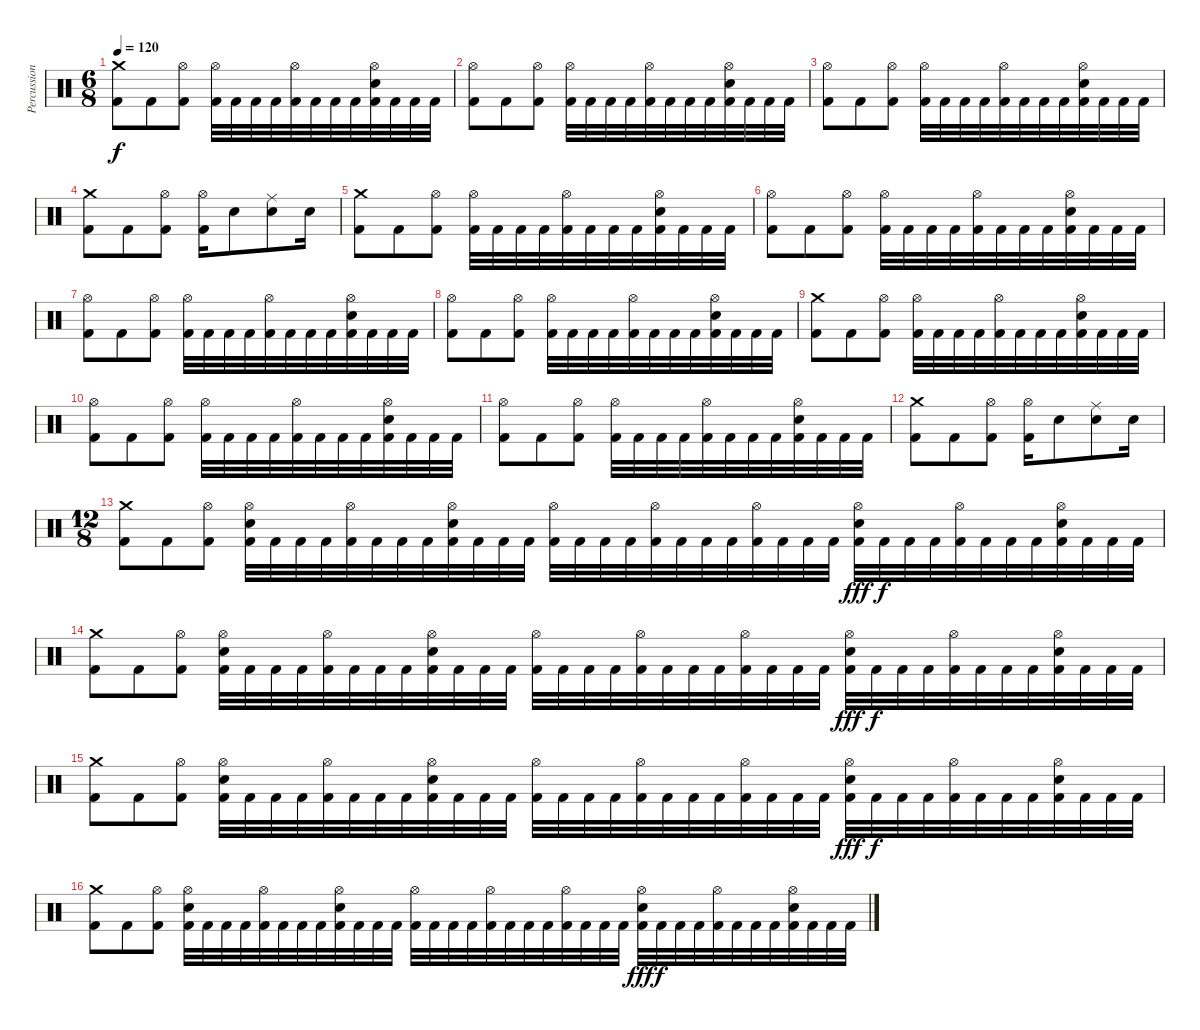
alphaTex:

\track ("Percussion" "Percussion") {instrument percussion}
\staff {score}
\articulation defaults
\ts (6 8)
\tempo 120
\clef neutral
\ks c
("Crash medium (hit)" "Kick (hit) 2").8{dy f} "Kick (hit) 2".8 ("Hi-Hat (open)" "Kick (hit) 2").8 ("Hi-Hat (open)" "Kick (hit) 2").32 "Kick (hit) 2".32 "Kick (hit) 2".32 "Kick (hit) 2".32 ("Hi-Hat (open)" "Kick (hit) 2").32 "Kick (hit) 2".32 "Kick (hit) 2".32 "Kick (hit) 2".32 ("Hi-Hat (open)" "Electric Snare (hit)" "Kick (hit) 2").32 "Kick (hit) 2".32 "Kick (hit) 2".32 "Kick (hit) 2".32 |
("Hi-Hat (open)" "Kick (hit) 2").8 "Kick (hit) 2".8 ("Hi-Hat (open)" "Kick (hit) 2").8 ("Hi-Hat (open)" "Kick (hit) 2").32 "Kick (hit) 2".32 "Kick (hit) 2".32 "Kick (hit) 2".32 ("Hi-Hat (open)" "Kick (hit) 2").32 "Kick (hit) 2".32 "Kick (hit) 2".32 "Kick (hit) 2".32 ("Hi-Hat (open)" "Electric Snare (hit)" "Kick (hit) 2").32 "Kick (hit) 2".32 "Kick (hit) 2".32 "Kick (hit) 2".32 |
("Hi-Hat (open)" "Kick (hit) 2").8 "Kick (hit) 2".8 ("Hi-Hat (open)" "Kick (hit) 2").8 ("Hi-Hat (open)" "Kick (hit) 2").32 "Kick (hit) 2".32 "Kick (hit) 2".32 "Kick (hit) 2".32 ("Hi-Hat (open)" "Kick (hit) 2").32 "Kick (hit) 2".32 "Kick (hit) 2".32 "Kick (hit) 2".32 ("Hi-Hat (open)" "Electric Snare (hit)" "Kick (hit) 2").32 "Kick (hit) 2".32 "Kick (hit) 2".32 "Kick (hit) 2".32 |
("Crash medium (hit)" "Kick (hit) 2").8 "Kick (hit) 2".8 ("Hi-Hat (open)" "Kick (hit) 2").8 ("Hi-Hat (open)" "Kick (hit) 2").16 "Electric Snare (hit)".8 ("Ride (middle)" "Electric Snare (hit)").8 "Electric Snare (hit)".16 |
("Crash medium (hit)" "Kick (hit) 2").8 "Kick (hit) 2".8 ("Hi-Hat (open)" "Kick (hit) 2").8 ("Hi-Hat (open)" "Kick (hit) 2").32 "Kick (hit) 2".32 "Kick (hit) 2".32 "Kick (hit) 2".32 ("Hi-Hat (open)" "Kick (hit) 2").32 "Kick (hit) 2".32 "Kick (hit) 2".32 "Kick (hit) 2".32 ("Hi-Hat (open)" "Electric Snare (hit)" "Kick (hit) 2").32 "Kick (hit) 2".32 "Kick (hit) 2".32 "Kick (hit) 2".32 |
("Hi-Hat (open)" "Kick (hit) 2").8 "Kick (hit) 2".8 ("Hi-Hat (open)" "Kick (hit) 2").8 ("Hi-Hat (open)" "Kick (hit) 2").32 "Kick (hit) 2".32 "Kick (hit) 2".32 "Kick (hit) 2".32 ("Hi-Hat (open)" "Kick (hit) 2").32 "Kick (hit) 2".32 "Kick (hit) 2".32 "Kick (hit) 2".32 ("Hi-Hat (open)" "Electric Snare (hit)" "Kick (hit) 2").32 "Kick (hit) 2".32 "Kick (hit) 2".32 "Kick (hit) 2".32 |
("Hi-Hat (open)" "Kick (hit) 2").8 "Kick (hit) 2".8 ("Hi-Hat (open)" "Kick (hit) 2").8 ("Hi-Hat (open)" "Kick (hit) 2").32 "Kick (hit) 2".32 "Kick (hit) 2".32 "Kick (hit) 2".32 ("Hi-Hat (open)" "Kick (hit) 2").32 "Kick (hit) 2".32 "Kick (hit) 2".32 "Kick (hit) 2".32 ("Hi-Hat (open)" "Electric Snare (hit)" "Kick (hit) 2").32 "Kick (hit) 2".32 "Kick (hit) 2".32 "Kick (hit) 2".32 |
("Hi-Hat (open)" "Kick (hit) 2").8 "Kick (hit) 2".8 ("Hi-Hat (open)" "Kick (hit) 2").8 ("Hi-Hat (open)" "Kick (hit) 2").32 "Kick (hit) 2".32 "Kick (hit) 2".32 "Kick (hit) 2".32 ("Hi-Hat (open)" "Kick (hit) 2").32 "Kick (hit) 2".32 "Kick (hit) 2".32 "Kick (hit) 2".32 ("Hi-Hat (open)" "Electric Snare (hit)" "Kick (hit) 2").32 "Kick (hit) 2".32 "Kick (hit) 2".32 "Kick (hit) 2".32 |
("Crash medium (hit)" "Kick (hit) 2").8 "Kick (hit) 2".8 ("Hi-Hat (open)" "Kick (hit) 2").8 ("Hi-Hat (open)" "Kick (hit) 2").32 "Kick (hit) 2".32 "Kick (hit) 2".32 "Kick (hit) 2".32 ("Hi-Hat (open)" "Kick (hit) 2").32 "Kick (hit) 2".32 "Kick (hit) 2".32 "Kick (hit) 2".32 ("Hi-Hat (open)" "Electric Snare (hit)" "Kick (hit) 2").32 "Kick (hit) 2".32 "Kick (hit) 2".32 "Kick (hit) 2".32 |
("Hi-Hat (open)" "Kick (hit) 2").8 "Kick (hit) 2".8 ("Hi-Hat (open)" "Kick (hit) 2").8 ("Hi-Hat (open)" "Kick (hit) 2").32 "Kick (hit) 2".32 "Kick (hit) 2".32 "Kick (hit) 2".32 ("Hi-Hat (open)" "Kick (hit) 2").32 "Kick (hit) 2".32 "Kick (hit) 2".32 "Kick (hit) 2".32 ("Hi-Hat (open)" "Electric Snare (hit)" "Kick (hit) 2").32 "Kick (hit) 2".32 "Kick (hit) 2".32 "Kick (hit) 2".32 |
("Hi-Hat (open)" "Kick (hit) 2").8 "Kick (hit) 2".8 ("Hi-Hat (open)" "Kick (hit) 2").8 ("Hi-Hat (open)" "Kick (hit) 2").32 "Kick (hit) 2".32 "Kick (hit) 2".32 "Kick (hit) 2".32 ("Hi-Hat (open)" "Kick (hit) 2").32 "Kick (hit) 2".32 "Kick (hit) 2".32 "Kick (hit) 2".32 ("Hi-Hat (open)" "Electric Snare (hit)" "Kick (hit) 2").32 "Kick (hit) 2".32 "Kick (hit) 2".32 "Kick (hit) 2".32 |
("Crash medium (hit)" "Kick (hit) 2").8 "Kick (hit) 2".8 ("Hi-Hat (open)" "Kick (hit) 2").8 ("Hi-Hat (open)" "Kick (hit) 2").16 "Electric Snare (hit)".8 ("Ride (middle)" "Electric Snare (hit)").8 "Electric Snare (hit)".16 |
\ts (12 8)
("Crash medium (hit)" "Kick (hit) 2").8 "Kick (hit) 2".8 ("Hi-Hat (open)" "Kick (hit) 2").8 ("Hi-Hat (open)" "Electric Snare (hit)" "Kick (hit) 2").32 "Kick (hit) 2".32 "Kick (hit) 2".32 "Kick (hit) 2".32 ("Hi-Hat (open)" "Kick (hit) 2").32 "Kick (hit) 2".32 "Kick (hit) 2".32 "Kick (hit) 2".32 ("Hi-Hat (open)" "Electric Snare (hit)" "Kick (hit) 2").32 "Kick (hit) 2".32 "Kick (hit) 2".32 "Kick (hit) 2".32 ("Hi-Hat (open)" "Kick (hit) 2").32 "Kick (hit) 2".32 "Kick (hit) 2".32 "Kick (hit) 2".32 ("Hi-Hat (open)" "Kick (hit) 2").32 "Kick (hit) 2".32 "Kick (hit) 2".32 "Kick (hit) 2".32 ("Hi-Hat (open)" "Kick (hit) 2").32 "Kick (hit) 2".32 "Kick (hit) 2".32 "Kick (hit) 2".32 ("Hi-Hat (open)" "Electric Snare (hit)" "Kick (hit) 2").32{dy fff} "Kick (hit) 2".32{dy f} "Kick (hit) 2".32 "Kick (hit) 2".32 ("Hi-Hat (open)" "Kick (hit) 2").32 "Kick (hit) 2".32 "Kick (hit) 2".32 "Kick (hit) 2".32 ("Hi-Hat (open)" "Electric Snare (hit)" "Kick (hit) 2").32 "Kick (hit) 2".32 "Kick (hit) 2".32 "Kick (hit) 2".32 |
("Crash medium (hit)" "Kick (hit) 2").8 "Kick (hit) 2".8 ("Hi-Hat (open)" "Kick (hit) 2").8 ("Hi-Hat (open)" "Electric Snare (hit)" "Kick (hit) 2").32 "Kick (hit) 2".32 "Kick (hit) 2".32 "Kick (hit) 2".32 ("Hi-Hat (open)" "Kick (hit) 2").32 "Kick (hit) 2".32 "Kick (hit) 2".32 "Kick (hit) 2".32 ("Hi-Hat (open)" "Electric Snare (hit)" "Kick (hit) 2").32 "Kick (hit) 2".32 "Kick (hit) 2".32 "Kick (hit) 2".32 ("Hi-Hat (open)" "Kick (hit) 2").32 "Kick (hit) 2".32 "Kick (hit) 2".32 "Kick (hit) 2".32 ("Hi-Hat (open)" "Kick (hit) 2").32 "Kick (hit) 2".32 "Kick (hit) 2".32 "Kick (hit) 2".32 ("Hi-Hat (open)" "Kick (hit) 2").32 "Kick (hit) 2".32 "Kick (hit) 2".32 "Kick (hit) 2".32 ("Hi-Hat (open)" "Electric Snare (hit)" "Kick (hit) 2").32{dy fff} "Kick (hit) 2".32{dy f} "Kick (hit) 2".32 "Kick (hit) 2".32 ("Hi-Hat (open)" "Kick (hit) 2").32 "Kick (hit) 2".32 "Kick (hit) 2".32 "Kick (hit) 2".32 ("Hi-Hat (open)" "Electric Snare (hit)" "Kick (hit) 2").32 "Kick (hit) 2".32 "Kick (hit) 2".32 "Kick (hit) 2".32 |
("Crash medium (hit)" "Kick (hit) 2").8 "Kick (hit) 2".8 ("Hi-Hat (open)" "Kick (hit) 2").8 ("Hi-Hat (open)" "Electric Snare (hit)" "Kick (hit) 2").32 "Kick (hit) 2".32 "Kick (hit) 2".32 "Kick (hit) 2".32 ("Hi-Hat (open)" "Kick (hit) 2").32 "Kick (hit) 2".32 "Kick (hit) 2".32 "Kick (hit) 2".32 ("Hi-Hat (open)" "Electric Snare (hit)" "Kick (hit) 2").32 "Kick (hit) 2".32 "Kick (hit) 2".32 "Kick (hit) 2".32 ("Hi-Hat (open)" "Kick (hit) 2").32 "Kick (hit) 2".32 "Kick (hit) 2".32 "Kick (hit) 2".32 ("Hi-Hat (open)" "Kick (hit) 2").32 "Kick (hit) 2".32 "Kick (hit) 2".32 "Kick (hit) 2".32 ("Hi-Hat (open)" "Kick (hit) 2").32 "Kick (hit) 2".32 "Kick (hit) 2".32 "Kick (hit) 2".32 ("Hi-Hat (open)" "Electric Snare (hit)" "Kick (hit) 2").32{dy fff} "Kick (hit) 2".32{dy f} "Kick (hit) 2".32 "Kick (hit) 2".32 ("Hi-Hat (open)" "Kick (hit) 2").32 "Kick (hit) 2".32 "Kick (hit) 2".32 "Kick (hit) 2".32 ("Hi-Hat (open)" "Electric Snare (hit)" "Kick (hit) 2").32 "Kick (hit) 2".32 "Kick (hit) 2".32 "Kick (hit) 2".32 |
("Crash medium (hit)" "Kick (hit) 2").8 "Kick (hit) 2".8 ("Hi-Hat (open)" "Kick (hit) 2").8 ("Hi-Hat (open)" "Electric Snare (hit)" "Kick (hit) 2").32 "Kick (hit) 2".32 "Kick (hit) 2".32 "Kick (hit) 2".32 ("Hi-Hat (open)" "Kick (hit) 2").32 "Kick (hit) 2".32 "Kick (hit) 2".32 "Kick (hit) 2".32 ("Hi-Hat (open)" "Electric Snare (hit)" "Kick (hit) 2").32 "Kick (hit) 2".32 "Kick (hit) 2".32 "Kick (hit) 2".32 ("Hi-Hat (open)" "Kick (hit) 2").32 "Kick (hit) 2".32 "Kick (hit) 2".32 "Kick (hit) 2".32 ("Hi-Hat (open)" "Kick (hit) 2").32 "Kick (hit) 2".32 "Kick (hit) 2".32 "Kick (hit) 2".32 ("Hi-Hat (open)" "Kick (hit) 2").32 "Kick (hit) 2".32 "Kick (hit) 2".32 "Kick (hit) 2".32 ("Hi-Hat (open)" "Electric Snare (hit)" "Kick (hit) 2").32{dy fff} "Kick (hit) 2".32{dy f} "Kick (hit) 2".32 "Kick (hit) 2".32 ("Hi-Hat (open)" "Kick (hit) 2").32 "Kick (hit) 2".32 "Kick (hit) 2".32 "Kick (hit) 2".32 ("Hi-Hat (open)" "Electric Snare (hit)" "Kick (hit) 2").32 "Kick (hit) 2".32 "Kick (hit) 2".32 "Kick (hit) 2".32
